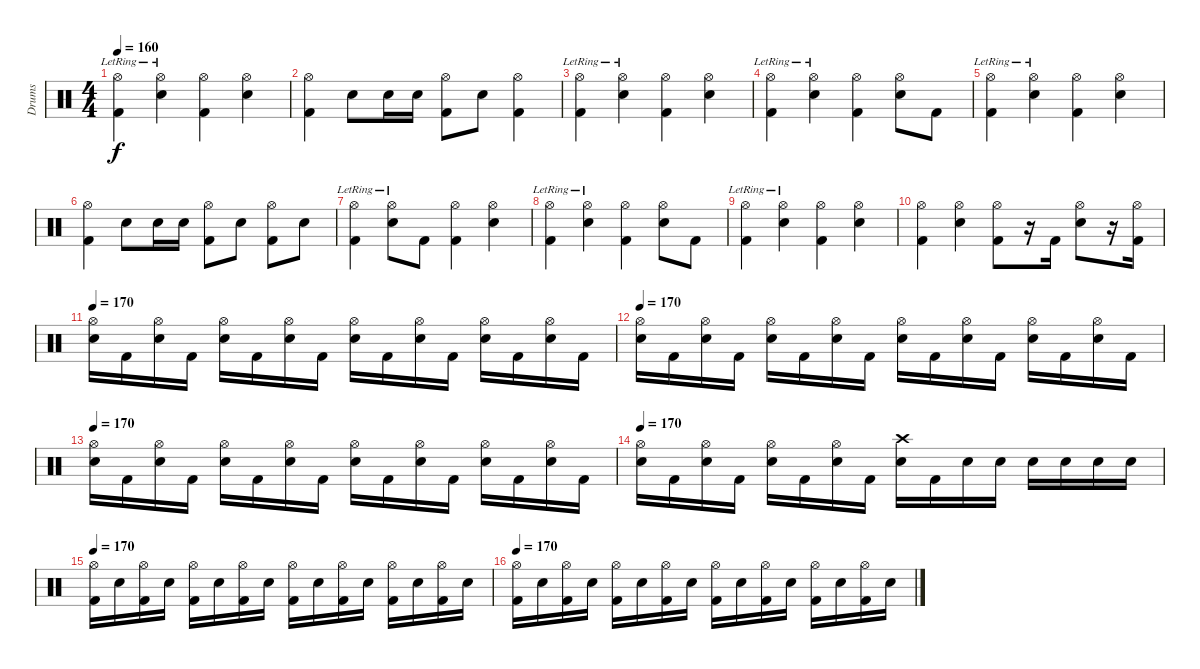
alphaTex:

\track ("Drums" "Drums") {instrument percussion}
\staff {score}
\articulation defaults
\ts (4 4)
\tempo 160
\clef neutral
\ks c
("Hi-Hat (open)"{lr} "Kick (hit) 2").4{dy f} ("Hi-Hat (open)"{lr} "Electric Snare (hit)").4 ("Hi-Hat (open)" "Kick (hit) 2").4 ("Hi-Hat (open)" "Electric Snare (hit)").4 |
("Hi-Hat (open)" "Kick (hit) 2").4 "Electric Snare (hit)".8 "Electric Snare (hit)".16 "Electric Snare (hit)".16 ("Hi-Hat (open)" "Kick (hit) 2").8 "Electric Snare (hit)".8 ("Hi-Hat (open)" "Kick (hit) 2").4 |
("Hi-Hat (open)"{lr} "Kick (hit) 2").4 ("Hi-Hat (open)"{lr} "Electric Snare (hit)").4 ("Hi-Hat (open)" "Kick (hit) 2").4 ("Hi-Hat (open)" "Electric Snare (hit)").4 |
("Hi-Hat (open)"{lr} "Kick (hit) 2").4 ("Hi-Hat (open)"{lr} "Electric Snare (hit)").4 ("Hi-Hat (open)" "Kick (hit) 2").4 ("Hi-Hat (open)" "Electric Snare (hit)").8 "Kick (hit) 2".8 |
("Hi-Hat (open)"{lr} "Kick (hit) 2").4 ("Hi-Hat (open)"{lr} "Electric Snare (hit)").4 ("Hi-Hat (open)" "Kick (hit) 2").4 ("Hi-Hat (open)" "Electric Snare (hit)").4 |
("Hi-Hat (open)" "Kick (hit) 2").4 "Electric Snare (hit)".8 "Electric Snare (hit)".16 "Electric Snare (hit)".16 ("Hi-Hat (open)" "Kick (hit) 2").8 "Electric Snare (hit)".8 ("Hi-Hat (open)" "Kick (hit) 2").8 "Electric Snare (hit)".8 |
("Hi-Hat (open)"{lr} "Kick (hit) 2").4 ("Hi-Hat (open)"{lr} "Electric Snare (hit)").8 "Kick (hit) 2".8 ("Hi-Hat (open)" "Kick (hit) 2").4 ("Hi-Hat (open)" "Electric Snare (hit)").4 |
("Hi-Hat (open)"{lr} "Kick (hit) 2").4 ("Hi-Hat (open)"{lr} "Electric Snare (hit)").4 ("Hi-Hat (open)" "Kick (hit) 2").4 ("Hi-Hat (open)" "Electric Snare (hit)").8 "Kick (hit) 2".8 |
("Hi-Hat (open)"{lr} "Kick (hit) 2").4 ("Hi-Hat (open)"{lr} "Electric Snare (hit)").4 ("Hi-Hat (open)" "Kick (hit) 2").4 ("Hi-Hat (open)" "Electric Snare (hit)").4 |
("Hi-Hat (open)" "Kick (hit) 2").4 ("Hi-Hat (open)" "Electric Snare (hit)").4 ("Hi-Hat (open)" "Kick (hit) 2").8 r.16 "Kick (hit) 2".16 ("Hi-Hat (open)" "Electric Snare (hit)").8 r.16 ("Hi-Hat (open)" "Kick (hit) 2").16 |
\tempo 170
("Hi-Hat (open)" "Electric Snare (hit)").16 "Kick (hit) 2".16 ("Hi-Hat (open)" "Electric Snare (hit)").16 "Kick (hit) 2".16 ("Hi-Hat (open)" "Electric Snare (hit)").16 "Kick (hit) 2".16 ("Hi-Hat (open)" "Electric Snare (hit)").16 "Kick (hit) 2".16 ("Hi-Hat (open)" "Electric Snare (hit)").16 "Kick (hit) 2".16 ("Hi-Hat (open)" "Electric Snare (hit)").16 "Kick (hit) 2".16 ("Hi-Hat (open)" "Electric Snare (hit)").16 "Kick (hit) 2".16 ("Hi-Hat (open)" "Electric Snare (hit)").16 "Kick (hit) 2".16 |
\tempo 170
("Hi-Hat (open)" "Electric Snare (hit)").16 "Kick (hit) 2".16 ("Hi-Hat (open)" "Electric Snare (hit)").16 "Kick (hit) 2".16 ("Hi-Hat (open)" "Electric Snare (hit)").16 "Kick (hit) 2".16 ("Hi-Hat (open)" "Electric Snare (hit)").16 "Kick (hit) 2".16 ("Hi-Hat (open)" "Electric Snare (hit)").16 "Kick (hit) 2".16 ("Hi-Hat (open)" "Electric Snare (hit)").16 "Kick (hit) 2".16 ("Hi-Hat (open)" "Electric Snare (hit)").16 "Kick (hit) 2".16 ("Hi-Hat (open)" "Electric Snare (hit)").16 "Kick (hit) 2".16 |
\tempo 170
("Hi-Hat (open)" "Electric Snare (hit)").16 "Kick (hit) 2".16 ("Hi-Hat (open)" "Electric Snare (hit)").16 "Kick (hit) 2".16 ("Hi-Hat (open)" "Electric Snare (hit)").16 "Kick (hit) 2".16 ("Hi-Hat (open)" "Electric Snare (hit)").16 "Kick (hit) 2".16 ("Hi-Hat (open)" "Electric Snare (hit)").16 "Kick (hit) 2".16 ("Hi-Hat (open)" "Electric Snare (hit)").16 "Kick (hit) 2".16 ("Hi-Hat (open)" "Electric Snare (hit)").16 "Kick (hit) 2".16 ("Hi-Hat (open)" "Electric Snare (hit)").16 "Kick (hit) 2".16 |
\tempo 170
("Hi-Hat (open)" "Electric Snare (hit)").16 "Kick (hit) 2".16 ("Hi-Hat (open)" "Electric Snare (hit)").16 "Kick (hit) 2".16 ("Hi-Hat (open)" "Electric Snare (hit)").16 "Kick (hit) 2".16 ("Hi-Hat (open)" "Electric Snare (hit)").16 "Kick (hit) 2".16 ("Crash high (hit)" "Electric Snare (hit)").16 "Kick (hit) 2".16 "Electric Snare (hit)".16 "Electric Snare (hit)".16 "Electric Snare (hit)".16 "Electric Snare (hit)".16 "Electric Snare (hit)".16 "Electric Snare (hit)".16 |
\tempo 170
("Hi-Hat (open)" "Kick (hit) 2").16 "Electric Snare (hit)".16 ("Hi-Hat (open)" "Kick (hit) 2").16 "Electric Snare (hit)".16 ("Hi-Hat (open)" "Kick (hit) 2").16 "Electric Snare (hit)".16 ("Hi-Hat (open)" "Kick (hit) 2").16 "Electric Snare (hit)".16 ("Hi-Hat (open)" "Kick (hit) 2").16 "Electric Snare (hit)".16 ("Hi-Hat (open)" "Kick (hit) 2").16 "Electric Snare (hit)".16 ("Hi-Hat (open)" "Kick (hit) 2").16 "Electric Snare (hit)".16 ("Hi-Hat (open)" "Kick (hit) 2").16 "Electric Snare (hit)".16 |
\tempo 170
("Hi-Hat (open)" "Kick (hit) 2").16 "Electric Snare (hit)".16 ("Hi-Hat (open)" "Kick (hit) 2").16 "Electric Snare (hit)".16 ("Hi-Hat (open)" "Kick (hit) 2").16 "Electric Snare (hit)".16 ("Hi-Hat (open)" "Kick (hit) 2").16 "Electric Snare (hit)".16 ("Hi-Hat (open)" "Kick (hit) 2").16 "Electric Snare (hit)".16 ("Hi-Hat (open)" "Kick (hit) 2").16 "Electric Snare (hit)".16 ("Hi-Hat (open)" "Kick (hit) 2").16 "Electric Snare (hit)".16 ("Hi-Hat (open)" "Kick (hit) 2").16 "Electric Snare (hit)".16
